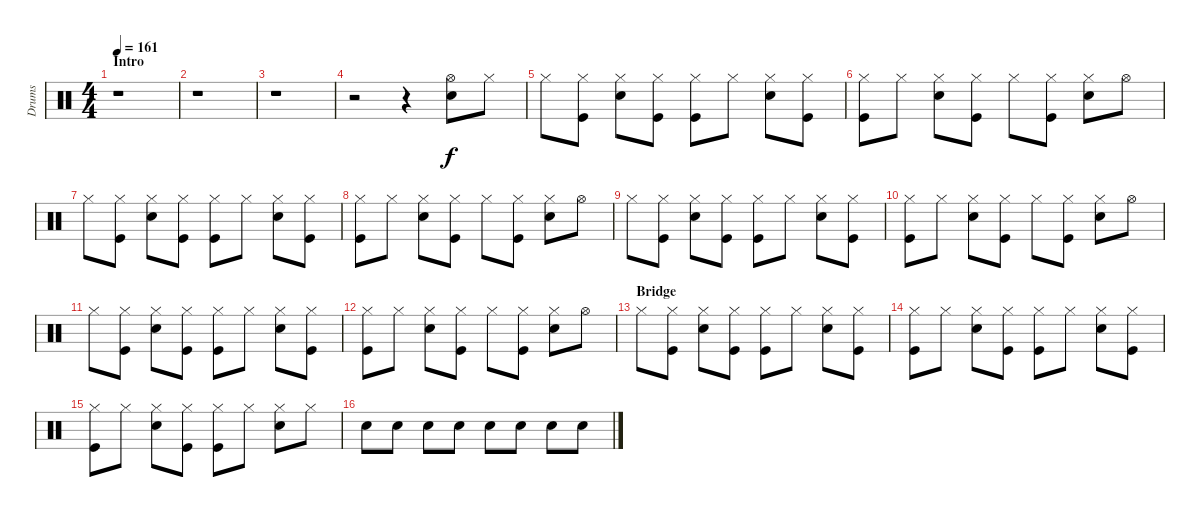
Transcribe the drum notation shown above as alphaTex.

\track ("Drums" "Drums") {instrument percussion}
\staff {score}
\articulation defaults
\ts (4 4)
\section ("" "Intro")
\tempo 161
\clef neutral
\ks c
r.1{dy f} |
r.1 |
r.1 |
r.2 r.4 ("Hi-Hat (open)" "Electric Snare (hit)").8 "Hi-Hat (closed)".8 |
"Hi-Hat (closed)".8 ("Hi-Hat (closed)" "Kick (hit)").8 ("Hi-Hat (closed)" "Electric Snare (hit)").8 ("Hi-Hat (closed)" "Kick (hit)").8 ("Hi-Hat (closed)" "Kick (hit)").8 "Hi-Hat (closed)".8 ("Hi-Hat (closed)" "Electric Snare (hit)").8 ("Hi-Hat (closed)" "Kick (hit)").8 |
("Hi-Hat (closed)" "Kick (hit)").8 "Hi-Hat (closed)".8 ("Hi-Hat (closed)" "Electric Snare (hit)").8 ("Hi-Hat (closed)" "Kick (hit)").8 "Hi-Hat (closed)".8 ("Hi-Hat (closed)" "Kick (hit)").8 ("Hi-Hat (closed)" "Electric Snare (hit)").8 "Hi-Hat (open)".8 |
"Hi-Hat (closed)".8 ("Hi-Hat (closed)" "Kick (hit)").8 ("Hi-Hat (closed)" "Electric Snare (hit)").8 ("Hi-Hat (closed)" "Kick (hit)").8 ("Hi-Hat (closed)" "Kick (hit)").8 "Hi-Hat (closed)".8 ("Hi-Hat (closed)" "Electric Snare (hit)").8 ("Hi-Hat (closed)" "Kick (hit)").8 |
("Hi-Hat (closed)" "Kick (hit)").8 "Hi-Hat (closed)".8 ("Hi-Hat (closed)" "Electric Snare (hit)").8 ("Hi-Hat (closed)" "Kick (hit)").8 "Hi-Hat (closed)".8 ("Hi-Hat (closed)" "Kick (hit)").8 ("Hi-Hat (closed)" "Electric Snare (hit)").8 "Hi-Hat (open)".8 |
"Hi-Hat (closed)".8 ("Hi-Hat (closed)" "Kick (hit)").8 ("Hi-Hat (closed)" "Electric Snare (hit)").8 ("Hi-Hat (closed)" "Kick (hit)").8 ("Hi-Hat (closed)" "Kick (hit)").8 "Hi-Hat (closed)".8 ("Hi-Hat (closed)" "Electric Snare (hit)").8 ("Hi-Hat (closed)" "Kick (hit)").8 |
("Hi-Hat (closed)" "Kick (hit)").8 "Hi-Hat (closed)".8 ("Hi-Hat (closed)" "Electric Snare (hit)").8 ("Hi-Hat (closed)" "Kick (hit)").8 "Hi-Hat (closed)".8 ("Hi-Hat (closed)" "Kick (hit)").8 ("Hi-Hat (closed)" "Electric Snare (hit)").8 "Hi-Hat (open)".8 |
"Hi-Hat (closed)".8 ("Hi-Hat (closed)" "Kick (hit)").8 ("Hi-Hat (closed)" "Electric Snare (hit)").8 ("Hi-Hat (closed)" "Kick (hit)").8 ("Hi-Hat (closed)" "Kick (hit)").8 "Hi-Hat (closed)".8 ("Hi-Hat (closed)" "Electric Snare (hit)").8 ("Hi-Hat (closed)" "Kick (hit)").8 |
("Hi-Hat (closed)" "Kick (hit)").8 "Hi-Hat (closed)".8 ("Hi-Hat (closed)" "Electric Snare (hit)").8 ("Hi-Hat (closed)" "Kick (hit)").8 "Hi-Hat (closed)".8 ("Hi-Hat (closed)" "Kick (hit)").8 ("Hi-Hat (closed)" "Electric Snare (hit)").8 "Hi-Hat (open)".8 |
\section ("" "Bridge")
"Hi-Hat (closed)".8 ("Hi-Hat (closed)" "Kick (hit)").8 ("Hi-Hat (closed)" "Electric Snare (hit)").8 ("Hi-Hat (closed)" "Kick (hit)").8 ("Hi-Hat (closed)" "Kick (hit)").8 "Hi-Hat (closed)".8 ("Hi-Hat (closed)" "Electric Snare (hit)").8 ("Hi-Hat (closed)" "Kick (hit)").8 |
("Hi-Hat (closed)" "Kick (hit)").8 "Hi-Hat (closed)".8 ("Hi-Hat (closed)" "Electric Snare (hit)").8 ("Hi-Hat (closed)" "Kick (hit)").8 ("Hi-Hat (closed)" "Kick (hit)").8 "Hi-Hat (closed)".8 ("Hi-Hat (closed)" "Electric Snare (hit)").8 ("Hi-Hat (closed)" "Kick (hit)").8 |
("Hi-Hat (closed)" "Kick (hit)").8 "Hi-Hat (closed)".8 ("Hi-Hat (closed)" "Electric Snare (hit)").8 ("Hi-Hat (closed)" "Kick (hit)").8 ("Hi-Hat (closed)" "Kick (hit)").8 "Hi-Hat (closed)".8 ("Hi-Hat (closed)" "Electric Snare (hit)").8 "Hi-Hat (closed)".8 |
"Electric Snare (hit)".8 "Electric Snare (hit)".8 "Electric Snare (hit)".8 "Electric Snare (hit)".8 "Electric Snare (hit)".8 "Electric Snare (hit)".8 "Electric Snare (hit)".8 "Electric Snare (hit)".8
